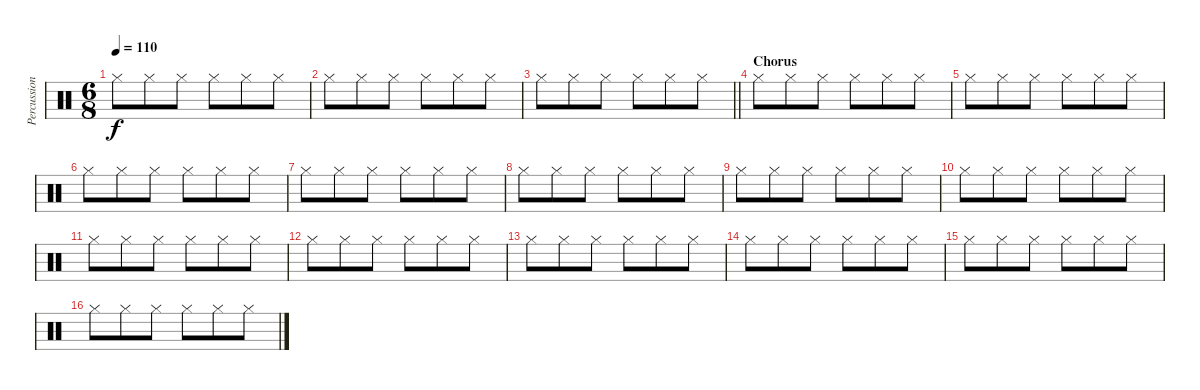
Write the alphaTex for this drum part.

\track ("Percussion" "Percussion") {instrument percussion}
\staff {score}
\articulation defaults
\ts (6 8)
\tempo 110
\clef neutral
\ks c "Hi-Hat (closed)".8{dy f} "Hi-Hat (closed)".8 "Hi-Hat (closed)".8 "Hi-Hat (closed)".8 "Hi-Hat (closed)".8 "Hi-Hat (closed)".8
|
"Hi-Hat (closed)".8 "Hi-Hat (closed)".8 "Hi-Hat (closed)".8 "Hi-Hat (closed)".8 "Hi-Hat (closed)".8 "Hi-Hat (closed)".8 |
\barLineRight lightlight "Hi-Hat (closed)".8 "Hi-Hat (closed)".8 "Hi-Hat (closed)".8 "Hi-Hat (closed)".8 "Hi-Hat (closed)".8 "Hi-Hat (closed)".8
|
\section ("" "Chorus")
"Hi-Hat (closed)".8 "Hi-Hat (closed)".8 "Hi-Hat (closed)".8 "Hi-Hat (closed)".8 "Hi-Hat (closed)".8 "Hi-Hat (closed)".8 |
"Hi-Hat (closed)".8 "Hi-Hat (closed)".8 "Hi-Hat (closed)".8 "Hi-Hat (closed)".8 "Hi-Hat (closed)".8 "Hi-Hat (closed)".8 |
"Hi-Hat (closed)".8 "Hi-Hat (closed)".8 "Hi-Hat (closed)".8 "Hi-Hat (closed)".8 "Hi-Hat (closed)".8 "Hi-Hat (closed)".8 |
"Hi-Hat (closed)".8 "Hi-Hat (closed)".8 "Hi-Hat (closed)".8 "Hi-Hat (closed)".8 "Hi-Hat (closed)".8 "Hi-Hat (closed)".8 |
"Hi-Hat (closed)".8 "Hi-Hat (closed)".8 "Hi-Hat (closed)".8 "Hi-Hat (closed)".8 "Hi-Hat (closed)".8 "Hi-Hat (closed)".8 |
"Hi-Hat (closed)".8 "Hi-Hat (closed)".8 "Hi-Hat (closed)".8 "Hi-Hat (closed)".8 "Hi-Hat (closed)".8 "Hi-Hat (closed)".8 |
"Hi-Hat (closed)".8 "Hi-Hat (closed)".8 "Hi-Hat (closed)".8 "Hi-Hat (closed)".8 "Hi-Hat (closed)".8 "Hi-Hat (closed)".8 |
"Hi-Hat (closed)".8 "Hi-Hat (closed)".8 "Hi-Hat (closed)".8 "Hi-Hat (closed)".8 "Hi-Hat (closed)".8 "Hi-Hat (closed)".8 |
"Hi-Hat (closed)".8 "Hi-Hat (closed)".8 "Hi-Hat (closed)".8 "Hi-Hat (closed)".8 "Hi-Hat (closed)".8 "Hi-Hat (closed)".8 |
"Hi-Hat (closed)".8 "Hi-Hat (closed)".8 "Hi-Hat (closed)".8 "Hi-Hat (closed)".8 "Hi-Hat (closed)".8 "Hi-Hat (closed)".8 |
"Hi-Hat (closed)".8 "Hi-Hat (closed)".8 "Hi-Hat (closed)".8 "Hi-Hat (closed)".8 "Hi-Hat (closed)".8 "Hi-Hat (closed)".8 |
"Hi-Hat (closed)".8 "Hi-Hat (closed)".8 "Hi-Hat (closed)".8 "Hi-Hat (closed)".8 "Hi-Hat (closed)".8 "Hi-Hat (closed)".8 |
"Hi-Hat (closed)".8 "Hi-Hat (closed)".8 "Hi-Hat (closed)".8 "Hi-Hat (closed)".8 "Hi-Hat (closed)".8 "Hi-Hat (closed)".8
